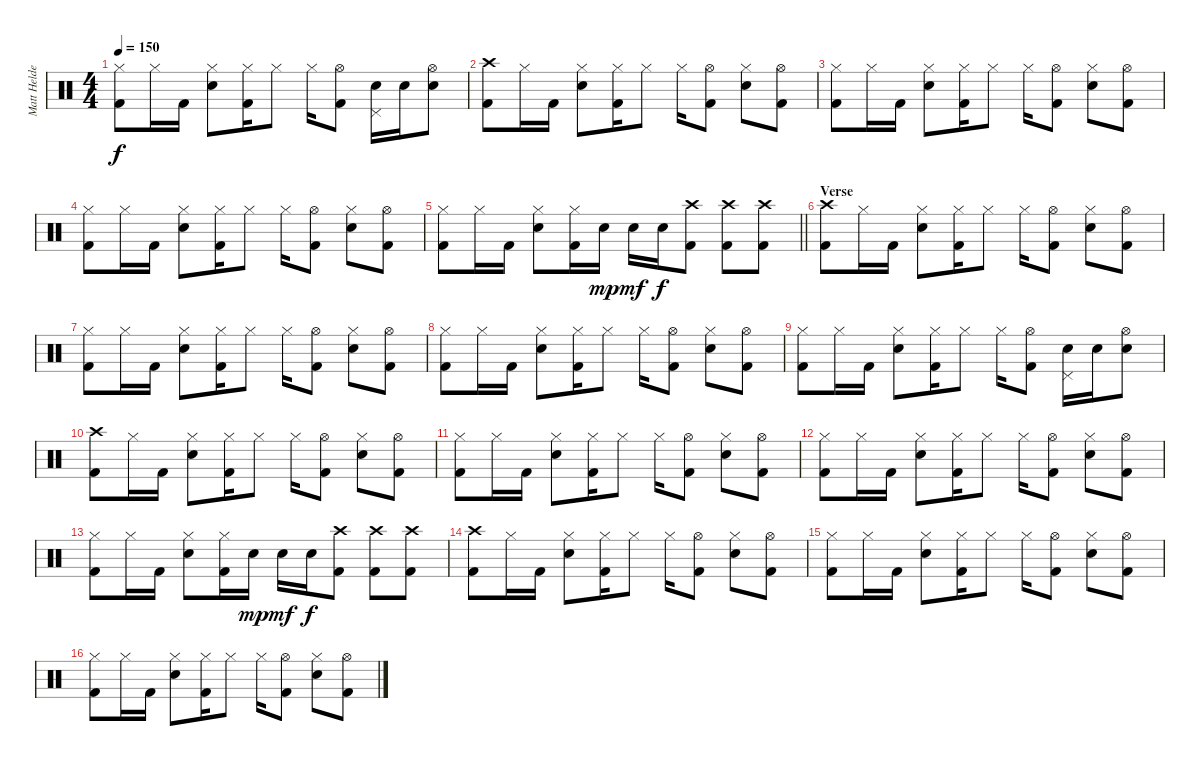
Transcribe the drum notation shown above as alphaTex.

\track ("Matt Helders - Drums MIDI" "Matt Helde") {instrument percussion}
\staff {score}
\articulation defaults
\ts (4 4)
\tempo 150
\clef neutral
\ks c
("Hi-Hat (closed)" "Kick (hit) 2").8{dy f} "Hi-Hat (closed)".16 "Kick (hit) 2".16 ("Hi-Hat (closed)" "Snare (hit) 2").8 ("Hi-Hat (closed)" "Kick (hit) 2").16 "Hi-Hat (closed)".8 "Hi-Hat (closed)".16 ("Hi-Hat (open)" "Kick (hit) 2").8 ("Pedal Hi-Hat (hit)" "Snare (hit) 2").16 "Snare (hit) 2".16 ("Hi-Hat (open)" "Snare (hit) 2").8 |
("Crash high (hit)" "Kick (hit) 2").8 "Hi-Hat (closed)".16 "Kick (hit) 2".16 ("Hi-Hat (closed)" "Snare (hit) 2").8 ("Hi-Hat (closed)" "Kick (hit) 2").16 "Hi-Hat (closed)".8 "Hi-Hat (closed)".16 ("Hi-Hat (open)" "Kick (hit) 2").8 ("Hi-Hat (closed)" "Snare (hit) 2").8 ("Hi-Hat (open)" "Kick (hit) 2").8 |
("Hi-Hat (closed)" "Kick (hit) 2").8 "Hi-Hat (closed)".16 "Kick (hit) 2".16 ("Hi-Hat (closed)" "Snare (hit) 2").8 ("Hi-Hat (closed)" "Kick (hit) 2").16 "Hi-Hat (closed)".8 "Hi-Hat (closed)".16 ("Hi-Hat (open)" "Kick (hit) 2").8 ("Hi-Hat (closed)" "Snare (hit) 2").8 ("Hi-Hat (open)" "Kick (hit) 2").8 |
("Hi-Hat (closed)" "Kick (hit) 2").8 "Hi-Hat (closed)".16 "Kick (hit) 2".16 ("Hi-Hat (closed)" "Snare (hit) 2").8 ("Hi-Hat (closed)" "Kick (hit) 2").16 "Hi-Hat (closed)".8 "Hi-Hat (closed)".16 ("Hi-Hat (open)" "Kick (hit) 2").8 ("Hi-Hat (closed)" "Snare (hit) 2").8 ("Hi-Hat (open)" "Kick (hit) 2").8 |
\barLineRight lightlight
("Hi-Hat (closed)" "Kick (hit) 2").8 "Hi-Hat (closed)".16 "Kick (hit) 2".16 ("Hi-Hat (closed)" "Snare (hit) 2").8 ("Hi-Hat (closed)" "Kick (hit) 2").16 "Snare (hit) 2".16{dy mp} "Snare (hit) 2".16{dy mf} "Snare (hit) 2".16{dy f} ("Crash high (hit)" "Kick (hit) 2").8 ("Crash high (hit)" "Kick (hit) 2").8 ("Crash high (hit)" "Kick (hit) 2").8 |
\section ("" "Verse")
("Crash high (hit)" "Kick (hit) 2").8 "Hi-Hat (closed)".16 "Kick (hit) 2".16 ("Hi-Hat (closed)" "Snare (hit) 2").8 ("Hi-Hat (closed)" "Kick (hit) 2").16 "Hi-Hat (closed)".8 "Hi-Hat (closed)".16 ("Hi-Hat (open)" "Kick (hit) 2").8 ("Hi-Hat (closed)" "Snare (hit) 2").8 ("Hi-Hat (open)" "Kick (hit) 2").8 |
("Hi-Hat (closed)" "Kick (hit) 2").8 "Hi-Hat (closed)".16 "Kick (hit) 2".16 ("Hi-Hat (closed)" "Snare (hit) 2").8 ("Hi-Hat (closed)" "Kick (hit) 2").16 "Hi-Hat (closed)".8 "Hi-Hat (closed)".16 ("Hi-Hat (open)" "Kick (hit) 2").8 ("Hi-Hat (closed)" "Snare (hit) 2").8 ("Hi-Hat (open)" "Kick (hit) 2").8 |
("Hi-Hat (closed)" "Kick (hit) 2").8 "Hi-Hat (closed)".16 "Kick (hit) 2".16 ("Hi-Hat (closed)" "Snare (hit) 2").8 ("Hi-Hat (closed)" "Kick (hit) 2").16 "Hi-Hat (closed)".8 "Hi-Hat (closed)".16 ("Hi-Hat (open)" "Kick (hit) 2").8 ("Hi-Hat (closed)" "Snare (hit) 2").8 ("Hi-Hat (open)" "Kick (hit) 2").8 |
("Hi-Hat (closed)" "Kick (hit) 2").8 "Hi-Hat (closed)".16 "Kick (hit) 2".16 ("Hi-Hat (closed)" "Snare (hit) 2").8 ("Hi-Hat (closed)" "Kick (hit) 2").16 "Hi-Hat (closed)".8 "Hi-Hat (closed)".16 ("Hi-Hat (open)" "Kick (hit) 2").8 ("Pedal Hi-Hat (hit)" "Snare (hit) 2").16 "Snare (hit) 2".16 ("Hi-Hat (open)" "Snare (hit) 2").8 |
("Crash high (hit)" "Kick (hit) 2").8 "Hi-Hat (closed)".16 "Kick (hit) 2".16 ("Hi-Hat (closed)" "Snare (hit) 2").8 ("Hi-Hat (closed)" "Kick (hit) 2").16 "Hi-Hat (closed)".8 "Hi-Hat (closed)".16 ("Hi-Hat (open)" "Kick (hit) 2").8 ("Hi-Hat (closed)" "Snare (hit) 2").8 ("Hi-Hat (open)" "Kick (hit) 2").8 |
("Hi-Hat (closed)" "Kick (hit) 2").8 "Hi-Hat (closed)".16 "Kick (hit) 2".16 ("Hi-Hat (closed)" "Snare (hit) 2").8 ("Hi-Hat (closed)" "Kick (hit) 2").16 "Hi-Hat (closed)".8 "Hi-Hat (closed)".16 ("Hi-Hat (open)" "Kick (hit) 2").8 ("Hi-Hat (closed)" "Snare (hit) 2").8 ("Hi-Hat (open)" "Kick (hit) 2").8 |
("Hi-Hat (closed)" "Kick (hit) 2").8 "Hi-Hat (closed)".16 "Kick (hit) 2".16 ("Hi-Hat (closed)" "Snare (hit) 2").8 ("Hi-Hat (closed)" "Kick (hit) 2").16 "Hi-Hat (closed)".8 "Hi-Hat (closed)".16 ("Hi-Hat (open)" "Kick (hit) 2").8 ("Hi-Hat (closed)" "Snare (hit) 2").8 ("Hi-Hat (open)" "Kick (hit) 2").8 |
("Hi-Hat (closed)" "Kick (hit) 2").8 "Hi-Hat (closed)".16 "Kick (hit) 2".16 ("Hi-Hat (closed)" "Snare (hit) 2").8 ("Hi-Hat (closed)" "Kick (hit) 2").16 "Snare (hit) 2".16{dy mp} "Snare (hit) 2".16{dy mf} "Snare (hit) 2".16{dy f} ("Crash high (hit)" "Kick (hit) 2").8 ("Crash high (hit)" "Kick (hit) 2").8 ("Crash high (hit)" "Kick (hit) 2").8 |
("Crash high (hit)" "Kick (hit) 2").8 "Hi-Hat (closed)".16 "Kick (hit) 2".16 ("Hi-Hat (closed)" "Snare (hit) 2").8 ("Hi-Hat (closed)" "Kick (hit) 2").16 "Hi-Hat (closed)".8 "Hi-Hat (closed)".16 ("Hi-Hat (open)" "Kick (hit) 2").8 ("Hi-Hat (closed)" "Snare (hit) 2").8 ("Hi-Hat (open)" "Kick (hit) 2").8 |
("Hi-Hat (closed)" "Kick (hit) 2").8 "Hi-Hat (closed)".16 "Kick (hit) 2".16 ("Hi-Hat (closed)" "Snare (hit) 2").8 ("Hi-Hat (closed)" "Kick (hit) 2").16 "Hi-Hat (closed)".8 "Hi-Hat (closed)".16 ("Hi-Hat (open)" "Kick (hit) 2").8 ("Hi-Hat (closed)" "Snare (hit) 2").8 ("Hi-Hat (open)" "Kick (hit) 2").8 |
("Hi-Hat (closed)" "Kick (hit) 2").8 "Hi-Hat (closed)".16 "Kick (hit) 2".16 ("Hi-Hat (closed)" "Snare (hit) 2").8 ("Hi-Hat (closed)" "Kick (hit) 2").16 "Hi-Hat (closed)".8 "Hi-Hat (closed)".16 ("Hi-Hat (open)" "Kick (hit) 2").8 ("Hi-Hat (closed)" "Snare (hit) 2").8 ("Hi-Hat (open)" "Kick (hit) 2").8
